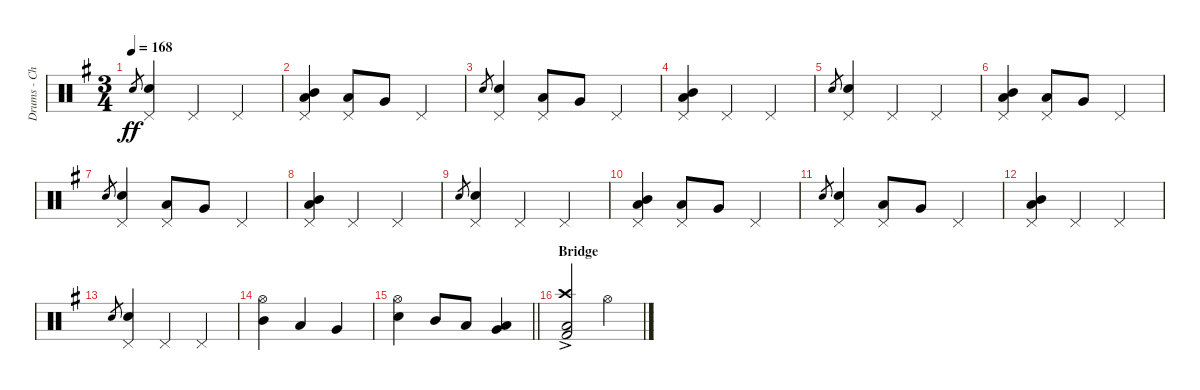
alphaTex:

\track ("Drums - Chris Hornbrook" "Drums - Ch") {instrument percussion}
\staff {score}
\articulation defaults
\ts (3 4)
\tempo 168
\clef neutral
\ks eminor "Electric Snare (hit)".8{gr dy ff}
("Pedal Hi-Hat (hit)" "Electric Snare (hit)").4 "Pedal Hi-Hat (hit)".4 "Pedal Hi-Hat (hit)".4 |
("Pedal Hi-Hat (hit)" "Mid Tom (hit)" "Low Tom (hit)").4{bu 120} ("Pedal Hi-Hat (hit)" "Low Tom (hit)").8 "Very Low Tom (hit)".8 "Pedal Hi-Hat (hit)".4 |
"Electric Snare (hit)".8{gr} ("Pedal Hi-Hat (hit)" "Electric Snare (hit)").4 ("Pedal Hi-Hat (hit)" "Low Tom (hit)").8 "Very Low Tom (hit)".8 "Pedal Hi-Hat (hit)".4 |
("Pedal Hi-Hat (hit)" "Mid Tom (hit)" "Low Tom (hit)").4{bu 120} "Pedal Hi-Hat (hit)".4 "Pedal Hi-Hat (hit)".4 |
"Electric Snare (hit)".8{gr} ("Pedal Hi-Hat (hit)" "Electric Snare (hit)").4 "Pedal Hi-Hat (hit)".4 "Pedal Hi-Hat (hit)".4 |
("Pedal Hi-Hat (hit)" "Mid Tom (hit)" "Low Tom (hit)").4{bu 120} ("Pedal Hi-Hat (hit)" "Low Tom (hit)").8 "Very Low Tom (hit)".8 "Pedal Hi-Hat (hit)".4 |
"Electric Snare (hit)".8{gr} ("Pedal Hi-Hat (hit)" "Electric Snare (hit)").4 ("Pedal Hi-Hat (hit)" "Low Tom (hit)").8 "Very Low Tom (hit)".8 "Pedal Hi-Hat (hit)".4 |
("Pedal Hi-Hat (hit)" "Mid Tom (hit)" "Low Tom (hit)").4{bu 120} "Pedal Hi-Hat (hit)".4 "Pedal Hi-Hat (hit)".4 |
"Electric Snare (hit)".8{gr} ("Pedal Hi-Hat (hit)" "Electric Snare (hit)").4 "Pedal Hi-Hat (hit)".4 "Pedal Hi-Hat (hit)".4 |
("Pedal Hi-Hat (hit)" "Mid Tom (hit)" "Low Tom (hit)").4{bu 120} ("Pedal Hi-Hat (hit)" "Low Tom (hit)").8 "Very Low Tom (hit)".8 "Pedal Hi-Hat (hit)".4 |
"Electric Snare (hit)".8{gr} ("Pedal Hi-Hat (hit)" "Electric Snare (hit)").4 ("Pedal Hi-Hat (hit)" "Low Tom (hit)").8 "Very Low Tom (hit)".8 "Pedal Hi-Hat (hit)".4 |
("Pedal Hi-Hat (hit)" "Mid Tom (hit)" "Low Tom (hit)").4{bu 120} "Pedal Hi-Hat (hit)".4 "Pedal Hi-Hat (hit)".4 |
"Electric Snare (hit)".8{gr} ("Pedal Hi-Hat (hit)" "Electric Snare (hit)").4 "Pedal Hi-Hat (hit)".4 "Pedal Hi-Hat (hit)".4 |
("Hi-Hat (open)" "Mid Tom (hit)").4 "Low Tom (hit)".4 "Very Low Tom (hit)".4 |
\barLineRight lightlight
("Hi-Hat (open)" "Electric Snare (hit)").4 "Mid Tom (hit)".8 "Low Tom (hit)".8 ("Very Low Tom (hit)" "Low Floor Tom (hit)").4{bu 120} |
\section ("" "Bridge")
("Crash high (hit)" "Low Floor Tom (hit)"{ac} "Kick (hit) 2").2 "Hi-Hat (open)".4
